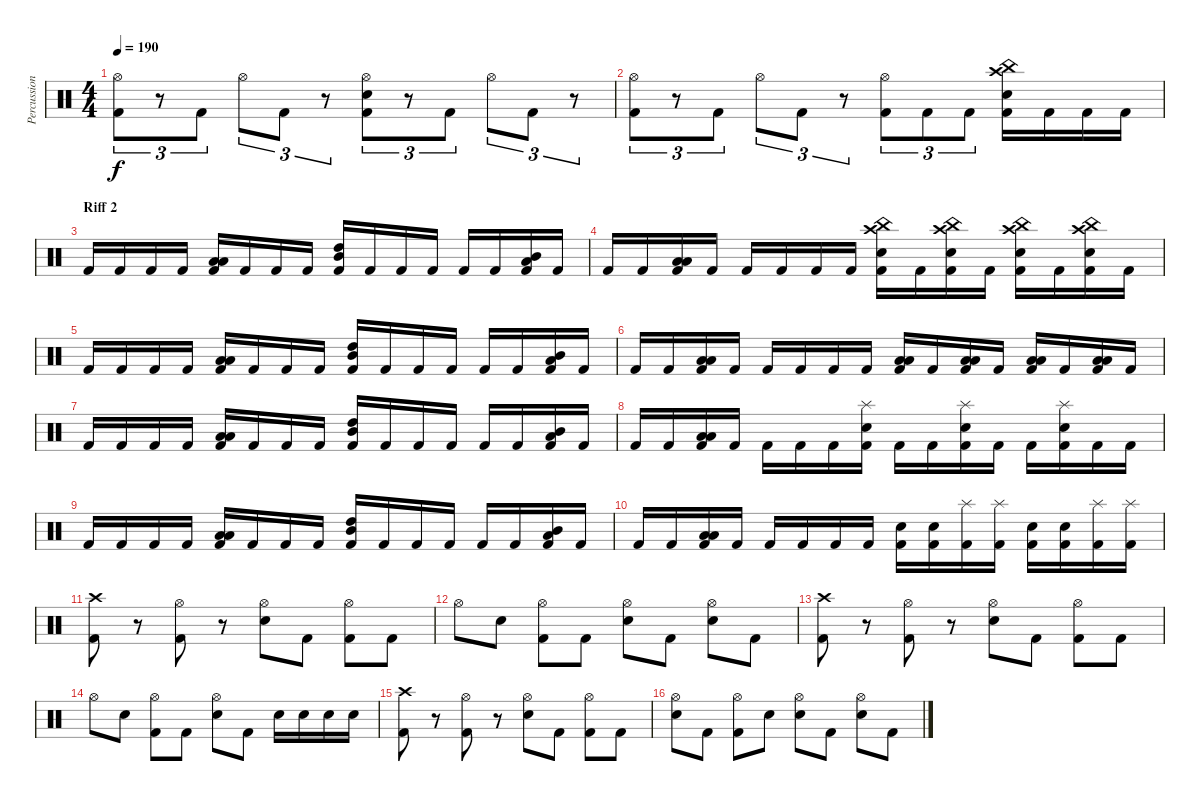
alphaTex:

\track ("Percussion" "Percussion") {instrument percussion}
\staff {score}
\articulation defaults
\ts (4 4)
\tempo 190
\clef neutral
\ks c
("Hi-Hat (open)" "Kick (hit) 2").8{tu (3 2) dy f} r.8{tu (3 2)} "Kick (hit) 2".8{tu (3 2)} "Hi-Hat (open)".8{tu (3 2)} "Kick (hit) 2".8{tu (3 2)} r.8{tu (3 2)} ("Hi-Hat (open)" "Electric Snare (hit)" "Kick (hit) 2").8{tu (3 2)} r.8{tu (3 2)} "Kick (hit) 2".8{tu (3 2)} "Hi-Hat (open)".8{tu (3 2)} "Kick (hit) 2".8{tu (3 2)} r.8{tu (3 2)} |
("Hi-Hat (open)" "Kick (hit) 2").8{tu (3 2)} r.8{tu (3 2)} "Kick (hit) 2".8{tu (3 2)} "Hi-Hat (open)".8{tu (3 2)} "Kick (hit) 2".8{tu (3 2)} r.8{tu (3 2)} ("Hi-Hat (open)" "Kick (hit) 2").8{tu (3 2)} "Kick (hit) 2".8{tu (3 2)} "Kick (hit) 2".8{tu (3 2)} ("China (hit)" "Crash high (hit)" "Electric Snare (hit)" "Kick (hit) 2").16 "Kick (hit) 2".16 "Kick (hit) 2".16 "Kick (hit) 2".16 |
\section ("" "Riff 2")
"Kick (hit) 2".16 "Kick (hit) 2".16 "Kick (hit) 2".16 "Kick (hit) 2".16 ("Low Tom (hit)" "Low Floor Tom (hit)" "Kick (hit) 2").16 "Kick (hit) 2".16 "Kick (hit) 2".16 "Kick (hit) 2".16 ("High Tom (hit)" "Mid Tom (hit)" "Kick (hit) 2").16 "Kick (hit) 2".16 "Kick (hit) 2".16 "Kick (hit) 2".16 "Kick (hit) 2".16 "Kick (hit) 2".16 ("Mid Tom (hit)" "Low Tom (hit)" "Kick (hit) 2").16 "Kick (hit) 2".16 |
"Kick (hit) 2".16 "Kick (hit) 2".16 ("Low Tom (hit)" "Low Floor Tom (hit)" "Kick (hit) 2").16 "Kick (hit) 2".16 "Kick (hit) 2".16 "Kick (hit) 2".16 "Kick (hit) 2".16 "Kick (hit) 2".16 ("China (hit)" "Crash high (hit)" "Electric Snare (hit)" "Kick (hit) 2").16 "Kick (hit) 2".16 ("China (hit)" "Crash high (hit)" "Electric Snare (hit)" "Kick (hit) 2").16 "Kick (hit) 2".16 ("China (hit)" "Crash high (hit)" "Electric Snare (hit)" "Kick (hit) 2").16 "Kick (hit) 2".16 ("China (hit)" "Crash high (hit)" "Electric Snare (hit)" "Kick (hit) 2").16 "Kick (hit) 2".16 |
"Kick (hit) 2".16 "Kick (hit) 2".16 "Kick (hit) 2".16 "Kick (hit) 2".16 ("Low Tom (hit)" "Low Floor Tom (hit)" "Kick (hit) 2").16 "Kick (hit) 2".16 "Kick (hit) 2".16 "Kick (hit) 2".16 ("High Tom (hit)" "Mid Tom (hit)" "Kick (hit) 2").16 "Kick (hit) 2".16 "Kick (hit) 2".16 "Kick (hit) 2".16 "Kick (hit) 2".16 "Kick (hit) 2".16 ("Mid Tom (hit)" "Low Tom (hit)" "Kick (hit) 2").16 "Kick (hit) 2".16 |
"Kick (hit) 2".16 "Kick (hit) 2".16 ("Low Tom (hit)" "Low Floor Tom (hit)" "Kick (hit) 2").16 "Kick (hit) 2".16 "Kick (hit) 2".16 "Kick (hit) 2".16 "Kick (hit) 2".16 "Kick (hit) 2".16 ("Low Tom (hit)" "Low Floor Tom (hit)" "Kick (hit) 2").16 "Kick (hit) 2".16 ("Low Tom (hit)" "Low Floor Tom (hit)" "Kick (hit) 2").16 "Kick (hit) 2".16 ("Low Tom (hit)" "Low Floor Tom (hit)" "Kick (hit) 2").16 "Kick (hit) 2".16 ("Low Tom (hit)" "Low Floor Tom (hit)" "Kick (hit) 2").16 "Kick (hit) 2".16 |
"Kick (hit) 2".16 "Kick (hit) 2".16 "Kick (hit) 2".16 "Kick (hit) 2".16 ("Low Tom (hit)" "Low Floor Tom (hit)" "Kick (hit) 2").16 "Kick (hit) 2".16 "Kick (hit) 2".16 "Kick (hit) 2".16 ("High Tom (hit)" "Mid Tom (hit)" "Kick (hit) 2").16 "Kick (hit) 2".16 "Kick (hit) 2".16 "Kick (hit) 2".16 "Kick (hit) 2".16 "Kick (hit) 2".16 ("Mid Tom (hit)" "Low Tom (hit)" "Kick (hit) 2").16 "Kick (hit) 2".16 |
"Kick (hit) 2".16 "Kick (hit) 2".16 ("Low Tom (hit)" "Low Floor Tom (hit)" "Kick (hit) 2").16 "Kick (hit) 2".16 "Kick (hit) 2".16 "Kick (hit) 2".16 "Kick (hit) 2".16 ("Splash (hit)" "Electric Snare (hit)" "Kick (hit) 2").16 "Kick (hit) 2".16 "Kick (hit) 2".16 ("Splash (hit)" "Electric Snare (hit)" "Kick (hit) 2").16 "Kick (hit) 2".16 "Kick (hit) 2".16 ("Splash (hit)" "Electric Snare (hit)" "Kick (hit) 2").16 "Kick (hit) 2".16 "Kick (hit) 2".16 |
"Kick (hit) 2".16 "Kick (hit) 2".16 "Kick (hit) 2".16 "Kick (hit) 2".16 ("Low Tom (hit)" "Low Floor Tom (hit)" "Kick (hit) 2").16 "Kick (hit) 2".16 "Kick (hit) 2".16 "Kick (hit) 2".16 ("High Tom (hit)" "Mid Tom (hit)" "Kick (hit) 2").16 "Kick (hit) 2".16 "Kick (hit) 2".16 "Kick (hit) 2".16 "Kick (hit) 2".16 "Kick (hit) 2".16 ("Mid Tom (hit)" "Low Tom (hit)" "Kick (hit) 2").16 "Kick (hit) 2".16 |
"Kick (hit) 2".16 "Kick (hit) 2".16 ("Low Tom (hit)" "Low Floor Tom (hit)" "Kick (hit) 2").16 "Kick (hit) 2".16 "Kick (hit) 2".16 "Kick (hit) 2".16 "Kick (hit) 2".16 "Kick (hit) 2".16 ("Electric Snare (hit)" "Kick (hit) 2").16 ("Electric Snare (hit)" "Kick (hit) 2").16 ("Splash (hit)" "Kick (hit) 2").16 ("Splash (hit)" "Kick (hit) 2").16 ("Electric Snare (hit)" "Kick (hit) 2").16 ("Electric Snare (hit)" "Kick (hit) 2").16 ("Splash (hit)" "Kick (hit) 2").16 ("Splash (hit)" "Kick (hit) 2").16 |
("Crash high (hit)" "Kick (hit) 2").8 r.8 ("Hi-Hat (open)" "Kick (hit) 2").8 r.8 ("Hi-Hat (open)" "Electric Snare (hit)").8 "Kick (hit) 2".8 ("Hi-Hat (open)" "Kick (hit) 2").8 "Kick (hit) 2".8 |
"Hi-Hat (open)".8 "Electric Snare (hit)".8 ("Hi-Hat (open)" "Kick (hit) 2").8 "Kick (hit) 2".8 ("Hi-Hat (open)" "Electric Snare (hit)").8 "Kick (hit) 2".8 ("Hi-Hat (open)" "Electric Snare (hit)").8 "Kick (hit) 2".8 |
("Crash high (hit)" "Kick (hit) 2").8 r.8 ("Hi-Hat (open)" "Kick (hit) 2").8 r.8 ("Hi-Hat (open)" "Electric Snare (hit)").8 "Kick (hit) 2".8 ("Hi-Hat (open)" "Kick (hit) 2").8 "Kick (hit) 2".8 |
"Hi-Hat (open)".8 "Electric Snare (hit)".8 ("Hi-Hat (open)" "Kick (hit) 2").8 "Kick (hit) 2".8 ("Hi-Hat (open)" "Electric Snare (hit)").8 "Kick (hit) 2".8 "Electric Snare (hit)".16 "Electric Snare (hit)".16 "Electric Snare (hit)".16 "Electric Snare (hit)".16 |
("Crash high (hit)" "Kick (hit) 2").8 r.8 ("Hi-Hat (open)" "Kick (hit) 2").8 r.8 ("Hi-Hat (open)" "Electric Snare (hit)").8 "Kick (hit) 2".8 ("Hi-Hat (open)" "Kick (hit) 2").8 "Kick (hit) 2".8 |
("Hi-Hat (open)" "Electric Snare (hit)").8 "Kick (hit) 2".8 ("Hi-Hat (open)" "Kick (hit) 2").8 "Electric Snare (hit)".8 ("Hi-Hat (open)" "Electric Snare (hit)").8 "Kick (hit) 2".8 ("Hi-Hat (open)" "Electric Snare (hit)").8 "Kick (hit) 2".8
